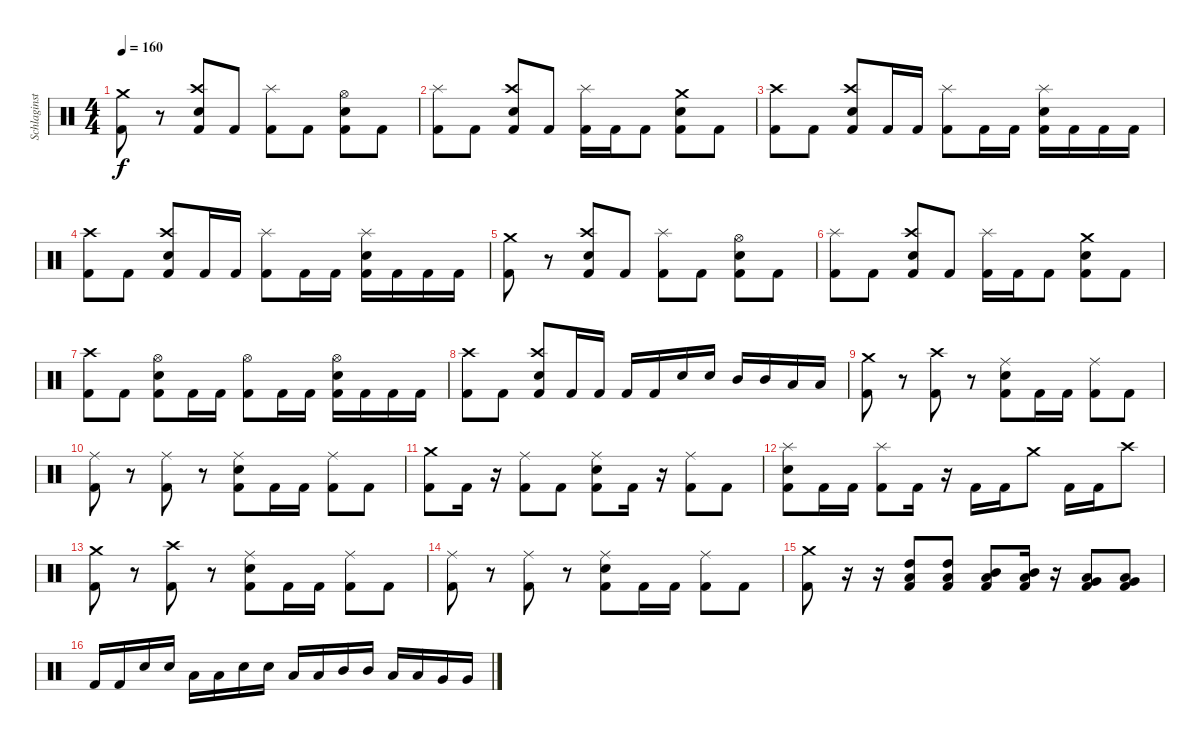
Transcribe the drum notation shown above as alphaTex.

\track ("Schlaginstrumente - Auswahl" "Schlaginst") {instrument percussion}
\staff {score}
\articulation defaults
\ts (4 4)
\tempo 160
\clef neutral
\ks c
("Crash medium (hit)" "Kick (hit) 2").8{dy f} r.8 ("Crash high (hit)" "Electric Snare (hit)" "Kick (hit) 2").8 "Kick (hit) 2".8 ("Splash (hit)" "Kick (hit) 2").8 "Kick (hit) 2".8 ("Hi-Hat (open)" "Electric Snare (hit)" "Kick (hit) 2").8 "Kick (hit) 2".8 |
("Splash (hit)" "Kick (hit) 2").8 "Kick (hit) 2".8 ("Crash high (hit)" "Electric Snare (hit)" "Kick (hit) 2").8 "Kick (hit) 2".8 ("Splash (hit)" "Kick (hit) 2").16 "Kick (hit) 2".16 "Kick (hit) 2".8 ("Crash medium (hit)" "Electric Snare (hit)" "Kick (hit) 2").8 "Kick (hit) 2".8 |
("Crash high (hit)" "Kick (hit) 2").8 "Kick (hit) 2".8 ("Crash high (hit)" "Electric Snare (hit)" "Kick (hit) 2").8 "Kick (hit) 2".16 "Kick (hit) 2".16 ("Splash (hit)" "Kick (hit) 2").8 "Kick (hit) 2".16 "Kick (hit) 2".16 ("Splash (hit)" "Electric Snare (hit)" "Kick (hit) 2").16 "Kick (hit) 2".16 "Kick (hit) 2".16 "Kick (hit) 2".16 |
("Crash high (hit)" "Kick (hit) 2").8 "Kick (hit) 2".8 ("Crash high (hit)" "Electric Snare (hit)" "Kick (hit) 2").8 "Kick (hit) 2".16 "Kick (hit) 2".16 ("Splash (hit)" "Kick (hit) 2").8 "Kick (hit) 2".16 "Kick (hit) 2".16 ("Splash (hit)" "Electric Snare (hit)" "Kick (hit) 2").16 "Kick (hit) 2".16 "Kick (hit) 2".16 "Kick (hit) 2".16 |
("Crash medium (hit)" "Kick (hit) 2").8 r.8 ("Crash high (hit)" "Electric Snare (hit)" "Kick (hit) 2").8 "Kick (hit) 2".8 ("Splash (hit)" "Kick (hit) 2").8 "Kick (hit) 2".8 ("Hi-Hat (open)" "Electric Snare (hit)" "Kick (hit) 2").8 "Kick (hit) 2".8 |
("Splash (hit)" "Kick (hit) 2").8 "Kick (hit) 2".8 ("Crash high (hit)" "Electric Snare (hit)" "Kick (hit) 2").8 "Kick (hit) 2".8 ("Splash (hit)" "Kick (hit) 2").16 "Kick (hit) 2".16 "Kick (hit) 2".8 ("Crash medium (hit)" "Electric Snare (hit)" "Kick (hit) 2").8 "Kick (hit) 2".8 |
("Crash high (hit)" "Kick (hit) 2").8 "Kick (hit) 2".8 ("Hi-Hat (open)" "Electric Snare (hit)" "Kick (hit) 2").8 "Kick (hit) 2".16 "Kick (hit) 2".16 ("Hi-Hat (open)" "Kick (hit) 2").8 "Kick (hit) 2".16 "Kick (hit) 2".16 ("Hi-Hat (open)" "Electric Snare (hit)" "Kick (hit) 2").16 "Kick (hit) 2".16 "Kick (hit) 2".16 "Kick (hit) 2".16 |
("Crash high (hit)" "Kick (hit) 2").8 "Kick (hit) 2".8 ("Crash high (hit)" "Electric Snare (hit)" "Kick (hit) 2").8 "Kick (hit) 2".16 "Kick (hit) 2".16 "Kick (hit) 2".16 "Kick (hit) 2".16 "Electric Snare (hit)".16 "Electric Snare (hit)".16 "Mid Tom (hit)".16 "Mid Tom (hit)".16 "Low Tom (hit)".16 "Low Tom (hit)".16 |
("Crash medium (hit)" "Kick (hit) 2").8 r.8 ("Crash high (hit)" "Kick (hit) 2").8 r.8 ("Ride (middle)" "Electric Snare (hit)" "Kick (hit) 2").8 "Kick (hit) 2".16 "Kick (hit) 2".16 ("Ride (middle)" "Kick (hit) 2").8 "Kick (hit) 2".8 |
("Ride (middle)" "Kick (hit) 2").8 r.8 ("Ride (middle)" "Kick (hit) 2").8 r.8 ("Ride (middle)" "Electric Snare (hit)" "Kick (hit) 2").8 "Kick (hit) 2".16 "Kick (hit) 2".16 ("Ride (middle)" "Kick (hit) 2").8 "Kick (hit) 2".8 |
("Crash medium (hit)" "Kick (hit) 2").8 "Kick (hit) 2".16 r.16 ("Ride (middle)" "Kick (hit) 2").8 "Kick (hit) 2".8 ("Ride (middle)" "Electric Snare (hit)" "Kick (hit) 2").8 "Kick (hit) 2".16 r.16 ("Ride (middle)" "Kick (hit) 2").8 "Kick (hit) 2".8 |
("Splash (hit)" "Electric Snare (hit)" "Kick (hit) 2").8 "Kick (hit) 2".16 "Kick (hit) 2".16 ("Splash (hit)" "Kick (hit) 2").8 "Kick (hit) 2".16 r.16 "Kick (hit) 2".16 "Kick (hit) 2".16 "Crash medium (hit)".8 "Kick (hit) 2".16 "Kick (hit) 2".16 "Crash high (hit)".8 |
("Crash medium (hit)" "Kick (hit) 2").8 r.8 ("Crash high (hit)" "Kick (hit) 2").8 r.8 ("Ride (middle)" "Electric Snare (hit)" "Kick (hit) 2").8 "Kick (hit) 2".16 "Kick (hit) 2".16 ("Ride (middle)" "Kick (hit) 2").8 "Kick (hit) 2".8 |
("Ride (middle)" "Kick (hit) 2").8 r.8 ("Ride (middle)" "Kick (hit) 2").8 r.8 ("Ride (middle)" "Electric Snare (hit)" "Kick (hit) 2").8 "Kick (hit) 2".16 "Kick (hit) 2".16 ("Ride (middle)" "Kick (hit) 2").8 "Kick (hit) 2".8 |
("Crash medium (hit)" "Kick (hit) 2").8 r.16 r.16 ("High Tom (hit)" "Low Tom (hit)" "Kick (hit) 2").8 ("High Tom (hit)" "Low Tom (hit)" "Kick (hit) 2").8 ("Mid Tom (hit)" "Low Tom (hit)" "Kick (hit) 2").8 ("Mid Tom (hit)" "Low Tom (hit)" "Kick (hit) 2").16 r.16 ("Very Low Tom (hit)" "Low Tom (hit)" "Kick (hit) 2").8 ("Very Low Tom (hit)" "Low Tom (hit)" "Kick (hit) 2").8 |
"Kick (hit) 2".16 "Kick (hit) 2".16 "Electric Snare (hit)".16 "Electric Snare (hit)".16 "Low Tom (hit)".16 "Low Tom (hit)".16 "Electric Snare (hit)".16 "Electric Snare (hit)".16 "Low Tom (hit)".16 "Low Tom (hit)".16 "Mid Tom (hit)".16 "Mid Tom (hit)".16 "Low Tom (hit)".16 "Low Tom (hit)".16 "Very Low Tom (hit)".16 "Very Low Tom (hit)".16
